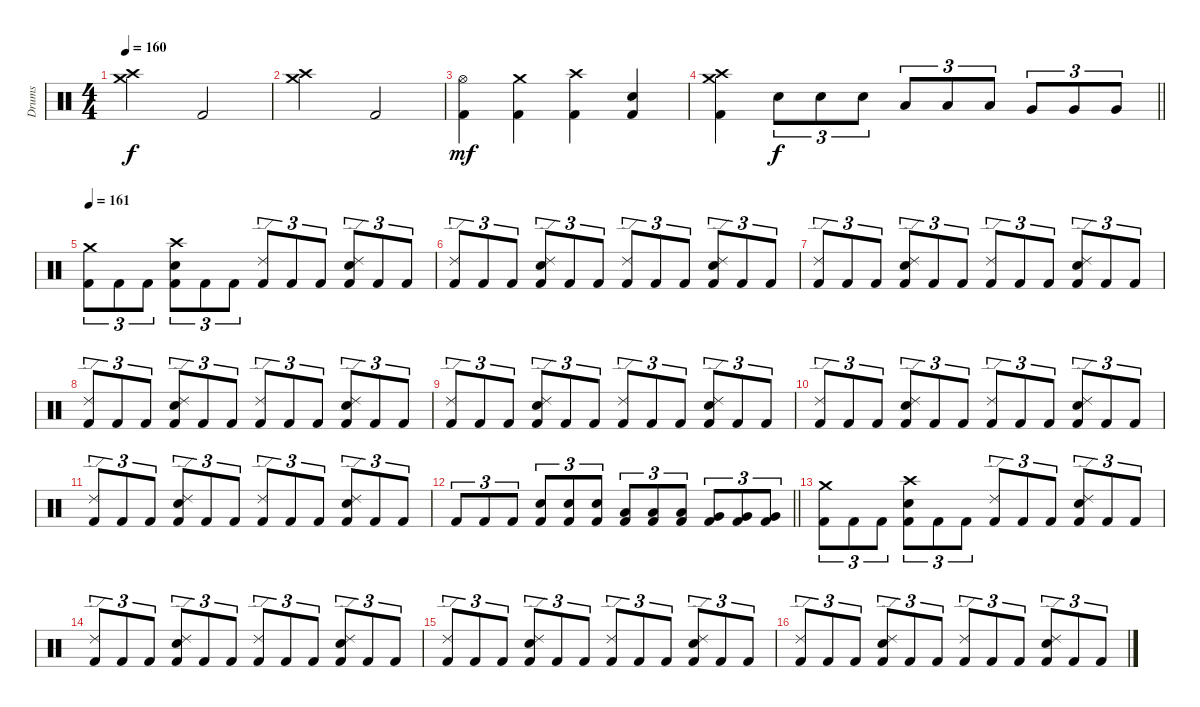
\track ("Drums" "Drums") {instrument percussion}
\staff {score}
\articulation defaults
\ts (4 4)
\tempo 160
\clef neutral
\ks c
("Crash medium (hit)" "Crash high (hit)").2{dy f} "Kick (hit) 2".2 |
("Crash medium (hit)" "Crash high (hit)").2 "Kick (hit) 2".2 |
("Hi-Hat (open)" "Kick (hit) 2").4{dy mf} ("Crash medium (hit)" "Kick (hit) 2").4 ("Crash high (hit)" "Kick (hit) 2").4 ("Snare (hit) 2" "Kick (hit) 2").4 |
\barLineRight lightlight
("Crash high (hit)" "Crash medium (hit)" "Kick (hit) 2").4 "Snare (hit) 2".8{tu (3 2) dy f} "Snare (hit) 2".8{tu (3 2)} "Snare (hit) 2".8{tu (3 2)} "Low Tom (hit)".8{tu (3 2)} "Low Tom (hit)".8{tu (3 2)} "Low Tom (hit)".8{tu (3 2)} "Very Low Tom (hit)".8{tu (3 2)} "Very Low Tom (hit)".8{tu (3 2)} "Very Low Tom (hit)".8{tu (3 2)} |
\tempo 161
("Crash medium (hit)" "Kick (hit) 2").8{tu (3 2)} "Kick (hit) 2".8{tu (3 2)} "Kick (hit) 2".8{tu (3 2)} ("Crash high (hit)" "Snare (hit) 2" "Kick (hit) 2").8{tu (3 2)} "Kick (hit) 2".8{tu (3 2)} "Kick (hit) 2".8{tu (3 2)} ("Ride (edge) 2" "Kick (hit) 2").8{tu (3 2)} "Kick (hit) 2".8{tu (3 2)} "Kick (hit) 2".8{tu (3 2)} ("Ride (edge) 2" "Snare (hit) 2" "Kick (hit) 2").8{tu (3 2)} "Kick (hit) 2".8{tu (3 2)} "Kick (hit) 2".8{tu (3 2)} |
("Ride (edge) 2" "Kick (hit) 2").8{tu (3 2)} "Kick (hit) 2".8{tu (3 2)} "Kick (hit) 2".8{tu (3 2)} ("Ride (edge) 2" "Snare (hit) 2" "Kick (hit) 2").8{tu (3 2)} "Kick (hit) 2".8{tu (3 2)} "Kick (hit) 2".8{tu (3 2)} ("Ride (edge) 2" "Kick (hit) 2").8{tu (3 2)} "Kick (hit) 2".8{tu (3 2)} "Kick (hit) 2".8{tu (3 2)} ("Ride (edge) 2" "Snare (hit) 2" "Kick (hit) 2").8{tu (3 2)} "Kick (hit) 2".8{tu (3 2)} "Kick (hit) 2".8{tu (3 2)} |
("Ride (edge) 2" "Kick (hit) 2").8{tu (3 2)} "Kick (hit) 2".8{tu (3 2)} "Kick (hit) 2".8{tu (3 2)} ("Ride (edge) 2" "Snare (hit) 2" "Kick (hit) 2").8{tu (3 2)} "Kick (hit) 2".8{tu (3 2)} "Kick (hit) 2".8{tu (3 2)} ("Ride (edge) 2" "Kick (hit) 2").8{tu (3 2)} "Kick (hit) 2".8{tu (3 2)} "Kick (hit) 2".8{tu (3 2)} ("Ride (edge) 2" "Snare (hit) 2" "Kick (hit) 2").8{tu (3 2)} "Kick (hit) 2".8{tu (3 2)} "Kick (hit) 2".8{tu (3 2)} |
("Ride (edge) 2" "Kick (hit) 2").8{tu (3 2)} "Kick (hit) 2".8{tu (3 2)} "Kick (hit) 2".8{tu (3 2)} ("Ride (edge) 2" "Snare (hit) 2" "Kick (hit) 2").8{tu (3 2)} "Kick (hit) 2".8{tu (3 2)} "Kick (hit) 2".8{tu (3 2)} ("Ride (edge) 2" "Kick (hit) 2").8{tu (3 2)} "Kick (hit) 2".8{tu (3 2)} "Kick (hit) 2".8{tu (3 2)} ("Ride (edge) 2" "Snare (hit) 2" "Kick (hit) 2").8{tu (3 2)} "Kick (hit) 2".8{tu (3 2)} "Kick (hit) 2".8{tu (3 2)} |
("Ride (edge) 2" "Kick (hit) 2").8{tu (3 2)} "Kick (hit) 2".8{tu (3 2)} "Kick (hit) 2".8{tu (3 2)} ("Ride (edge) 2" "Snare (hit) 2" "Kick (hit) 2").8{tu (3 2)} "Kick (hit) 2".8{tu (3 2)} "Kick (hit) 2".8{tu (3 2)} ("Ride (edge) 2" "Kick (hit) 2").8{tu (3 2)} "Kick (hit) 2".8{tu (3 2)} "Kick (hit) 2".8{tu (3 2)} ("Ride (edge) 2" "Snare (hit) 2" "Kick (hit) 2").8{tu (3 2)} "Kick (hit) 2".8{tu (3 2)} "Kick (hit) 2".8{tu (3 2)} |
("Ride (edge) 2" "Kick (hit) 2").8{tu (3 2)} "Kick (hit) 2".8{tu (3 2)} "Kick (hit) 2".8{tu (3 2)} ("Ride (edge) 2" "Snare (hit) 2" "Kick (hit) 2").8{tu (3 2)} "Kick (hit) 2".8{tu (3 2)} "Kick (hit) 2".8{tu (3 2)} ("Ride (edge) 2" "Kick (hit) 2").8{tu (3 2)} "Kick (hit) 2".8{tu (3 2)} "Kick (hit) 2".8{tu (3 2)} ("Ride (edge) 2" "Snare (hit) 2" "Kick (hit) 2").8{tu (3 2)} "Kick (hit) 2".8{tu (3 2)} "Kick (hit) 2".8{tu (3 2)} |
("Ride (edge) 2" "Kick (hit) 2").8{tu (3 2)} "Kick (hit) 2".8{tu (3 2)} "Kick (hit) 2".8{tu (3 2)} ("Ride (edge) 2" "Snare (hit) 2" "Kick (hit) 2").8{tu (3 2)} "Kick (hit) 2".8{tu (3 2)} "Kick (hit) 2".8{tu (3 2)} ("Ride (edge) 2" "Kick (hit) 2").8{tu (3 2)} "Kick (hit) 2".8{tu (3 2)} "Kick (hit) 2".8{tu (3 2)} ("Ride (edge) 2" "Snare (hit) 2" "Kick (hit) 2").8{tu (3 2)} "Kick (hit) 2".8{tu (3 2)} "Kick (hit) 2".8{tu (3 2)} |
\barLineRight lightlight "Kick (hit) 2".8{tu (3 2)} "Kick (hit) 2".8{tu (3 2)} "Kick (hit) 2".8{tu (3 2)}
("Snare (hit) 2" "Kick (hit) 2").8{tu (3 2)} ("Snare (hit) 2" "Kick (hit) 2").8{tu (3 2)} ("Snare (hit) 2" "Kick (hit) 2").8{tu (3 2)} ("Low Tom (hit)" "Kick (hit) 2").8{tu (3 2)} ("Low Tom (hit)" "Kick (hit) 2").8{tu (3 2)} ("Low Tom (hit)" "Kick (hit) 2").8{tu (3 2)} ("Very Low Tom (hit)" "Kick (hit) 2").8{tu (3 2)} ("Very Low Tom (hit)" "Kick (hit) 2").8{tu (3 2)} ("Very Low Tom (hit)" "Kick (hit) 2").8{tu (3 2)} |
("Crash medium (hit)" "Kick (hit) 2").8{tu (3 2)} "Kick (hit) 2".8{tu (3 2)} "Kick (hit) 2".8{tu (3 2)} ("Crash high (hit)" "Snare (hit) 2" "Kick (hit) 2").8{tu (3 2)} "Kick (hit) 2".8{tu (3 2)} "Kick (hit) 2".8{tu (3 2)} ("Ride (edge) 2" "Kick (hit) 2").8{tu (3 2)} "Kick (hit) 2".8{tu (3 2)} "Kick (hit) 2".8{tu (3 2)} ("Ride (edge) 2" "Snare (hit) 2" "Kick (hit) 2").8{tu (3 2)} "Kick (hit) 2".8{tu (3 2)} "Kick (hit) 2".8{tu (3 2)} |
\ks aminor
("Ride (edge) 2" "Kick (hit) 2").8{tu (3 2)} "Kick (hit) 2".8{tu (3 2)} "Kick (hit) 2".8{tu (3 2)} ("Ride (edge) 2" "Snare (hit) 2" "Kick (hit) 2").8{tu (3 2)} "Kick (hit) 2".8{tu (3 2)} "Kick (hit) 2".8{tu (3 2)} ("Ride (edge) 2" "Kick (hit) 2").8{tu (3 2)} "Kick (hit) 2".8{tu (3 2)} "Kick (hit) 2".8{tu (3 2)} ("Ride (edge) 2" "Snare (hit) 2" "Kick (hit) 2").8{tu (3 2)} "Kick (hit) 2".8{tu (3 2)} "Kick (hit) 2".8{tu (3 2)} |
("Ride (edge) 2" "Kick (hit) 2").8{tu (3 2)} "Kick (hit) 2".8{tu (3 2)} "Kick (hit) 2".8{tu (3 2)} ("Ride (edge) 2" "Snare (hit) 2" "Kick (hit) 2").8{tu (3 2)} "Kick (hit) 2".8{tu (3 2)} "Kick (hit) 2".8{tu (3 2)} ("Ride (edge) 2" "Kick (hit) 2").8{tu (3 2)} "Kick (hit) 2".8{tu (3 2)} "Kick (hit) 2".8{tu (3 2)} ("Ride (edge) 2" "Snare (hit) 2" "Kick (hit) 2").8{tu (3 2)} "Kick (hit) 2".8{tu (3 2)} "Kick (hit) 2".8{tu (3 2)} |
("Ride (edge) 2" "Kick (hit) 2").8{tu (3 2)} "Kick (hit) 2".8{tu (3 2)} "Kick (hit) 2".8{tu (3 2)} ("Ride (edge) 2" "Snare (hit) 2" "Kick (hit) 2").8{tu (3 2)} "Kick (hit) 2".8{tu (3 2)} "Kick (hit) 2".8{tu (3 2)} ("Ride (edge) 2" "Kick (hit) 2").8{tu (3 2)} "Kick (hit) 2".8{tu (3 2)} "Kick (hit) 2".8{tu (3 2)} ("Ride (edge) 2" "Snare (hit) 2" "Kick (hit) 2").8{tu (3 2)} "Kick (hit) 2".8{tu (3 2)} "Kick (hit) 2".8{tu (3 2)}
